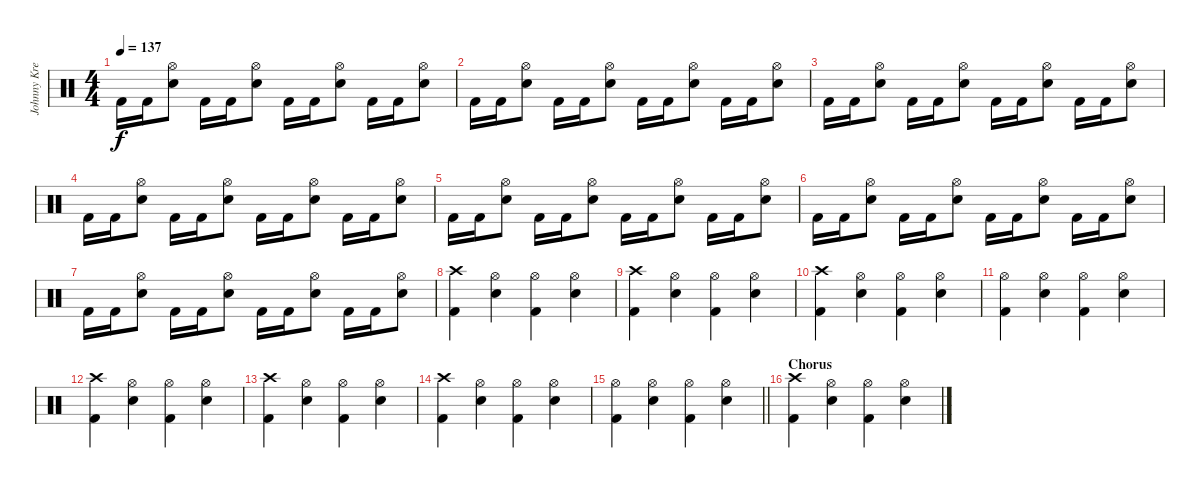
\track ("Johnny Kreis" "Johnny Kre") {instrument percussion}
\staff {score}
\articulation defaults
\ts (4 4)
\tempo 137
\clef neutral
\ks c "Kick (hit) 2".16{dy f} "Kick (hit) 2".16
("Hi-Hat (open)" "Snare (hit) 2").8 "Kick (hit) 2".16 "Kick (hit) 2".16 ("Hi-Hat (open)" "Snare (hit) 2").8 "Kick (hit) 2".16 "Kick (hit) 2".16 ("Hi-Hat (open)" "Snare (hit) 2").8 "Kick (hit) 2".16 "Kick (hit) 2".16 ("Hi-Hat (open)" "Snare (hit) 2").8 |
"Kick (hit) 2".16 "Kick (hit) 2".16 ("Hi-Hat (open)" "Snare (hit) 2").8 "Kick (hit) 2".16 "Kick (hit) 2".16 ("Hi-Hat (open)" "Snare (hit) 2").8 "Kick (hit) 2".16 "Kick (hit) 2".16 ("Hi-Hat (open)" "Snare (hit) 2").8 "Kick (hit) 2".16 "Kick (hit) 2".16 ("Hi-Hat (open)" "Snare (hit) 2").8 |
"Kick (hit) 2".16 "Kick (hit) 2".16 ("Hi-Hat (open)" "Snare (hit) 2").8 "Kick (hit) 2".16 "Kick (hit) 2".16 ("Hi-Hat (open)" "Snare (hit) 2").8 "Kick (hit) 2".16 "Kick (hit) 2".16 ("Hi-Hat (open)" "Snare (hit) 2").8 "Kick (hit) 2".16 "Kick (hit) 2".16 ("Hi-Hat (open)" "Snare (hit) 2").8 |
"Kick (hit) 2".16 "Kick (hit) 2".16 ("Hi-Hat (open)" "Snare (hit) 2").8 "Kick (hit) 2".16 "Kick (hit) 2".16 ("Hi-Hat (open)" "Snare (hit) 2").8 "Kick (hit) 2".16 "Kick (hit) 2".16 ("Hi-Hat (open)" "Snare (hit) 2").8 "Kick (hit) 2".16 "Kick (hit) 2".16 ("Hi-Hat (open)" "Snare (hit) 2").8 |
"Kick (hit) 2".16 "Kick (hit) 2".16 ("Hi-Hat (open)" "Snare (hit) 2").8 "Kick (hit) 2".16 "Kick (hit) 2".16 ("Hi-Hat (open)" "Snare (hit) 2").8 "Kick (hit) 2".16 "Kick (hit) 2".16 ("Hi-Hat (open)" "Snare (hit) 2").8 "Kick (hit) 2".16 "Kick (hit) 2".16 ("Hi-Hat (open)" "Snare (hit) 2").8 |
"Kick (hit) 2".16 "Kick (hit) 2".16 ("Hi-Hat (open)" "Snare (hit) 2").8 "Kick (hit) 2".16 "Kick (hit) 2".16 ("Hi-Hat (open)" "Snare (hit) 2").8 "Kick (hit) 2".16 "Kick (hit) 2".16 ("Hi-Hat (open)" "Snare (hit) 2").8 "Kick (hit) 2".16 "Kick (hit) 2".16 ("Hi-Hat (open)" "Snare (hit) 2").8 |
"Kick (hit) 2".16 "Kick (hit) 2".16 ("Hi-Hat (open)" "Snare (hit) 2").8 "Kick (hit) 2".16 "Kick (hit) 2".16 ("Hi-Hat (open)" "Snare (hit) 2").8 "Kick (hit) 2".16 "Kick (hit) 2".16 ("Hi-Hat (open)" "Snare (hit) 2").8 "Kick (hit) 2".16 "Kick (hit) 2".16 ("Hi-Hat (open)" "Snare (hit) 2").8 |
("Crash high (hit)" "Kick (hit) 2").4 ("Hi-Hat (open)" "Snare (hit) 2").4 ("Hi-Hat (open)" "Kick (hit) 2").4 ("Hi-Hat (open)" "Snare (hit) 2").4 |
("Crash high (hit)" "Kick (hit) 2").4 ("Hi-Hat (open)" "Snare (hit) 2").4 ("Hi-Hat (open)" "Kick (hit) 2").4 ("Hi-Hat (open)" "Snare (hit) 2").4 |
("Crash high (hit)" "Kick (hit) 2").4 ("Hi-Hat (open)" "Snare (hit) 2").4 ("Hi-Hat (open)" "Kick (hit) 2").4 ("Hi-Hat (open)" "Snare (hit) 2").4 |
("Hi-Hat (open)" "Kick (hit) 2").4 ("Hi-Hat (open)" "Snare (hit) 2").4 ("Hi-Hat (open)" "Kick (hit) 2").4 ("Hi-Hat (open)" "Snare (hit) 2").4 |
("Crash high (hit)" "Kick (hit) 2").4 ("Hi-Hat (open)" "Snare (hit) 2").4 ("Hi-Hat (open)" "Kick (hit) 2").4 ("Hi-Hat (open)" "Snare (hit) 2").4 |
("Crash high (hit)" "Kick (hit) 2").4 ("Hi-Hat (open)" "Snare (hit) 2").4 ("Hi-Hat (open)" "Kick (hit) 2").4 ("Hi-Hat (open)" "Snare (hit) 2").4 |
("Crash high (hit)" "Kick (hit) 2").4 ("Hi-Hat (open)" "Snare (hit) 2").4 ("Hi-Hat (open)" "Kick (hit) 2").4 ("Hi-Hat (open)" "Snare (hit) 2").4 |
\barLineRight lightlight
("Hi-Hat (open)" "Kick (hit) 2").4 ("Hi-Hat (open)" "Snare (hit) 2").4 ("Hi-Hat (open)" "Kick (hit) 2").4 ("Hi-Hat (open)" "Snare (hit) 2").4 |
\section ("" "Chorus")
("Crash high (hit)" "Kick (hit) 2").4 ("Hi-Hat (open)" "Snare (hit) 2").4 ("Hi-Hat (open)" "Kick (hit) 2").4 ("Hi-Hat (open)" "Snare (hit) 2").4
